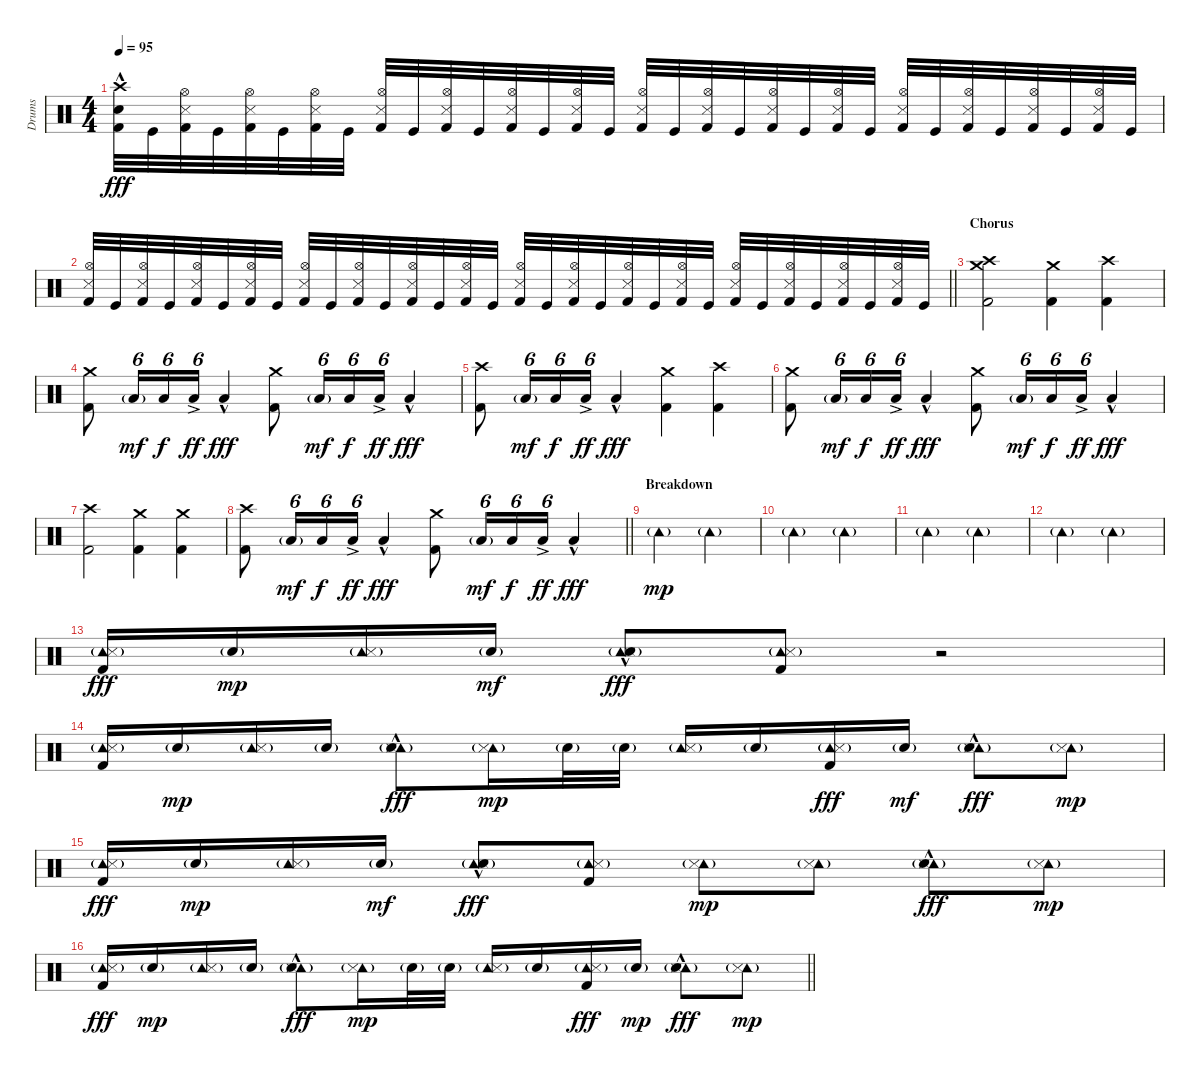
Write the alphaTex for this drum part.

\track ("Drums" "Drums") {instrument percussion}
\staff {score}
\articulation defaults
\ts (4 4)
\tempo 95
\clef neutral
\ks c
("Crash high (hit)" "Electric Snare (hit)"{hac} "Kick (hit) 2").32{dy fff} "Kick (hit)".32 ("Hi-Hat (open)" "Snare (side stick) 3" "Kick (hit) 2").32 "Kick (hit)".32 ("Hi-Hat (open)" "Snare (side stick) 3" "Kick (hit) 2").32 "Kick (hit)".32 ("Hi-Hat (open)" "Snare (side stick) 3" "Kick (hit) 2").32 "Kick (hit)".32 ("Hi-Hat (open)" "Snare (side stick) 3" "Kick (hit) 2").32 "Kick (hit)".32 ("Hi-Hat (open)" "Snare (side stick) 3" "Kick (hit) 2").32 "Kick (hit)".32 ("Hi-Hat (open)" "Snare (side stick) 3" "Kick (hit) 2").32 "Kick (hit)".32 ("Hi-Hat (open)" "Snare (side stick) 3" "Kick (hit) 2").32 "Kick (hit)".32 ("Hi-Hat (open)" "Snare (side stick) 3" "Kick (hit) 2").32 "Kick (hit)".32 ("Hi-Hat (open)" "Snare (side stick) 3" "Kick (hit) 2").32 "Kick (hit)".32 ("Hi-Hat (open)" "Snare (side stick) 3" "Kick (hit) 2").32 "Kick (hit)".32 ("Hi-Hat (open)" "Snare (side stick) 3" "Kick (hit) 2").32 "Kick (hit)".32 ("Hi-Hat (open)" "Snare (side stick) 3" "Kick (hit) 2").32 "Kick (hit)".32 ("Hi-Hat (open)" "Snare (side stick) 3" "Kick (hit) 2").32 "Kick (hit)".32 ("Hi-Hat (open)" "Snare (side stick) 3" "Kick (hit) 2").32 "Kick (hit)".32 ("Hi-Hat (open)" "Snare (side stick) 3" "Kick (hit) 2").32 "Kick (hit)".32 |
\barLineRight lightlight
("Hi-Hat (open)" "Snare (side stick) 3" "Kick (hit) 2").32 "Kick (hit)".32 ("Hi-Hat (open)" "Snare (side stick) 3" "Kick (hit) 2").32 "Kick (hit)".32 ("Hi-Hat (open)" "Snare (side stick) 3" "Kick (hit) 2").32 "Kick (hit)".32 ("Hi-Hat (open)" "Snare (side stick) 3" "Kick (hit) 2").32 "Kick (hit)".32 ("Hi-Hat (open)" "Snare (side stick) 3" "Kick (hit) 2").32 "Kick (hit)".32 ("Hi-Hat (open)" "Snare (side stick) 3" "Kick (hit) 2").32 "Kick (hit)".32 ("Hi-Hat (open)" "Snare (side stick) 3" "Kick (hit) 2").32 "Kick (hit)".32 ("Hi-Hat (open)" "Snare (side stick) 3" "Kick (hit) 2").32 "Kick (hit)".32 ("Hi-Hat (open)" "Snare (side stick) 3" "Kick (hit) 2").32 "Kick (hit)".32 ("Hi-Hat (open)" "Snare (side stick) 3" "Kick (hit) 2").32 "Kick (hit)".32 ("Hi-Hat (open)" "Snare (side stick) 3" "Kick (hit) 2").32 "Kick (hit)".32 ("Hi-Hat (open)" "Snare (side stick) 3" "Kick (hit) 2").32 "Kick (hit)".32 ("Hi-Hat (open)" "Snare (side stick) 3" "Kick (hit) 2").32 "Kick (hit)".32 ("Hi-Hat (open)" "Snare (side stick) 3" "Kick (hit) 2").32 "Kick (hit)".32 ("Hi-Hat (open)" "Snare (side stick) 3" "Kick (hit) 2").32 "Kick (hit)".32 ("Hi-Hat (open)" "Snare (side stick) 3" "Kick (hit) 2").32 "Kick (hit)".32 |
\section ("" "Chorus")
("Crash medium (hit)" "Crash high (hit)" "Kick (hit) 2").2 ("Crash medium (hit)" "Kick (hit) 2").4 ("Crash high (hit)" "Kick (hit) 2").4 |
("Crash medium (hit)" "Kick (hit) 2").8 "Low Floor Tom (hit)"{g}.16{tu (6 4) dy mf} "Low Floor Tom (hit)".16{tu (6 4) dy f} "Low Floor Tom (hit)"{ac}.16{tu (6 4) dy ff} "Low Floor Tom (hit)"{hac}.4{dy fff} ("Crash medium (hit)" "Kick (hit) 2").8 "Low Floor Tom (hit)"{g}.16{tu (6 4) dy mf} "Low Floor Tom (hit)".16{tu (6 4) dy f} "Low Floor Tom (hit)"{ac}.16{tu (6 4) dy ff} "Low Floor Tom (hit)"{hac}.4{dy fff} |
("Crash high (hit)" "Kick (hit) 2").8 "Low Floor Tom (hit)"{g}.16{tu (6 4) dy mf} "Low Floor Tom (hit)".16{tu (6 4) dy f} "Low Floor Tom (hit)"{ac}.16{tu (6 4) dy ff} "Low Floor Tom (hit)"{hac}.4{dy fff} ("Crash medium (hit)" "Kick (hit) 2").4 ("Crash high (hit)" "Kick (hit) 2").4 |
("Crash medium (hit)" "Kick (hit) 2").8 "Low Floor Tom (hit)"{g}.16{tu (6 4) dy mf} "Low Floor Tom (hit)".16{tu (6 4) dy f} "Low Floor Tom (hit)"{ac}.16{tu (6 4) dy ff} "Low Floor Tom (hit)"{hac}.4{dy fff} ("Crash medium (hit)" "Kick (hit) 2").8 "Low Floor Tom (hit)"{g}.16{tu (6 4) dy mf} "Low Floor Tom (hit)".16{tu (6 4) dy f} "Low Floor Tom (hit)"{ac}.16{tu (6 4) dy ff} "Low Floor Tom (hit)"{hac}.4{dy fff} |
("Crash high (hit)" "Kick (hit) 2").2 ("Crash medium (hit)" "Kick (hit) 2").4 ("Crash medium (hit)" "Kick (hit) 2").4 |
\barLineRight lightlight
("Crash high (hit)" "Kick (hit) 2").8 "Low Floor Tom (hit)"{g}.16{tu (6 4) dy mf} "Low Floor Tom (hit)".16{tu (6 4) dy f} "Low Floor Tom (hit)"{ac}.16{tu (6 4) dy ff} "Low Floor Tom (hit)"{hac}.4{dy fff} ("Crash medium (hit)" "Kick (hit) 2").8 "Low Floor Tom (hit)"{g}.16{tu (6 4) dy mf} "Low Floor Tom (hit)".16{tu (6 4) dy f} "Low Floor Tom (hit)"{ac}.16{tu (6 4) dy ff} "Low Floor Tom (hit)"{hac}.4{dy fff} |
\section ("" "Breakdown")
"Tambourine (hit)"{g}.2{dy mp volume 7} "Tambourine (hit)"{g}.2 |
"Tambourine (hit)"{g}.2 "Tambourine (hit)"{g}.2 |
"Tambourine (hit)"{g}.2 "Tambourine (hit)"{g}.2 |
"Tambourine (hit)"{g}.2 "Tambourine (hit)"{g}.2 |
("Tambourine (hit)"{g} "Metronome (hit)" "Kick (hit) 2").16{dy fff} "Electric Snare (hit)"{g}.16{dy mp} ("Tambourine (hit)"{g} "Metronome (hit)").16 "Electric Snare (hit)"{g}.16{dy mf} ("Tambourine (hit)"{g} "Metronome (hit)" "Electric Snare (hit)"{hac}).8{dy fff} ("Tambourine (hit)"{g} "Metronome (hit)" "Kick (hit) 2").8 r.2 |
("Tambourine (hit)"{g} "Metronome (hit)" "Kick (hit) 2").16 "Electric Snare (hit)"{g}.16{dy mp} ("Tambourine (hit)"{g} "Metronome (hit)").16 "Electric Snare (hit)"{g}.16 ("Tambourine (hit)"{g} "Metronome (hit)" "Electric Snare (hit)"{hac}).8{dy fff} ("Tambourine (hit)"{g} "Metronome (hit)").16{dy mp} "Electric Snare (hit)"{g}.32 "Electric Snare (hit)"{g}.32 ("Tambourine (hit)"{g} "Metronome (hit)").16 "Electric Snare (hit)"{g}.16 ("Tambourine (hit)"{g} "Metronome (hit)" "Kick (hit) 2").16{dy fff} "Electric Snare (hit)"{g}.16{dy mf} ("Tambourine (hit)"{g} "Metronome (hit)" "Electric Snare (hit)"{hac}).8{dy fff} ("Tambourine (hit)"{g} "Metronome (hit)").8{dy mp} |
("Tambourine (hit)"{g} "Metronome (hit)" "Kick (hit) 2").16{dy fff} "Electric Snare (hit)"{g}.16{dy mp} ("Tambourine (hit)"{g} "Metronome (hit)").16 "Electric Snare (hit)"{g}.16{dy mf} ("Tambourine (hit)"{g} "Metronome (hit)" "Electric Snare (hit)"{hac}).8{dy fff} ("Tambourine (hit)"{g} "Metronome (hit)" "Kick (hit) 2").8 ("Tambourine (hit)"{g} "Metronome (hit)").8{dy mp} ("Tambourine (hit)"{g} "Metronome (hit)").8 ("Tambourine (hit)"{g} "Metronome (hit)" "Electric Snare (hit)"{hac}).8{dy fff} ("Tambourine (hit)"{g} "Metronome (hit)").8{dy mp} |
\barLineRight lightlight
("Tambourine (hit)"{g} "Metronome (hit)" "Kick (hit) 2").16{dy fff} "Electric Snare (hit)"{g}.16{dy mp} ("Tambourine (hit)"{g} "Metronome (hit)").16 "Electric Snare (hit)"{g}.16 ("Tambourine (hit)"{g} "Metronome (hit)" "Electric Snare (hit)"{hac}).8{dy fff} ("Tambourine (hit)"{g} "Metronome (hit)").16{dy mp} "Electric Snare (hit)"{g}.32 "Electric Snare (hit)"{g}.32 ("Tambourine (hit)"{g} "Metronome (hit)").16 "Electric Snare (hit)"{g}.16 ("Tambourine (hit)"{g} "Metronome (hit)" "Kick (hit) 2").16{dy fff} "Electric Snare (hit)"{g}.16{dy mp} ("Tambourine (hit)"{g} "Metronome (hit)" "Electric Snare (hit)"{hac}).8{dy fff} ("Tambourine (hit)"{g} "Metronome (hit)").8{dy mp}
